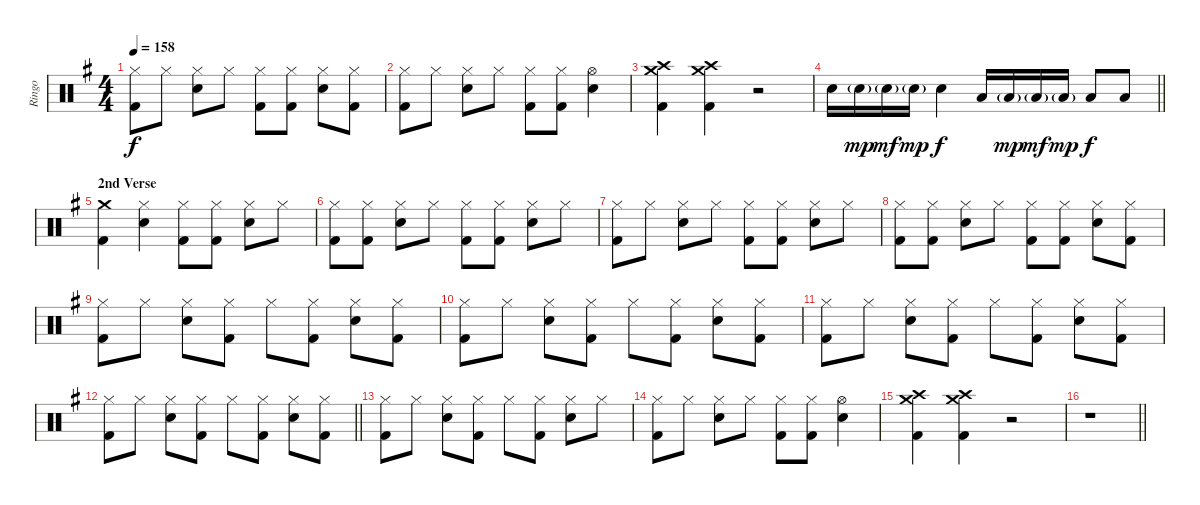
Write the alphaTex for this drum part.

\track ("Ringo" "Ringo") {instrument percussion}
\staff {score}
\articulation defaults
\ts (4 4)
\tempo 158
\clef neutral
\ks g
("Hi-Hat (closed)" "Kick (hit) 2").8{dy f} "Hi-Hat (closed)".8 ("Hi-Hat (closed)" "Electric Snare (hit)").8 "Hi-Hat (closed)".8 ("Hi-Hat (closed)" "Kick (hit) 2").8 ("Hi-Hat (closed)" "Kick (hit) 2").8 ("Hi-Hat (closed)" "Electric Snare (hit)").8 ("Hi-Hat (closed)" "Kick (hit) 2").8 |
("Hi-Hat (closed)" "Kick (hit) 2").8 "Hi-Hat (closed)".8 ("Hi-Hat (closed)" "Electric Snare (hit)").8 "Hi-Hat (closed)".8 ("Hi-Hat (closed)" "Kick (hit) 2").8 ("Hi-Hat (closed)" "Kick (hit) 2").8 ("Hi-Hat (open)" "Electric Snare (hit)").4 |
("Crash medium (hit)" "Crash high (hit)" "Kick (hit) 2").4 ("Crash medium (hit)" "Crash high (hit)" "Kick (hit) 2").4 r.2 |
\barLineRight lightlight "Electric Snare (hit)".16 "Electric Snare (hit)"{g}.16{dy mp} "Electric Snare (hit)"{g}.16{dy mf} "Electric Snare (hit)"{g}.16{dy mp} "Electric Snare (hit)".4{dy f} "Low Tom (hit)".16 "Low Tom (hit)"{g}.16{dy mp} "Low Tom (hit)"{g}.16{dy mf} "Low Tom (hit)"{g}.16{dy mp} "Low Tom (hit)".8{dy f} "Low Tom (hit)".8
|
\section ("" "2nd Verse")
("Crash medium (hit)" "Kick (hit) 2").4 ("Hi-Hat (closed)" "Electric Snare (hit)").4 ("Hi-Hat (closed)" "Kick (hit) 2").8 ("Hi-Hat (closed)" "Kick (hit) 2").8 ("Hi-Hat (closed)" "Electric Snare (hit)").8 "Hi-Hat (closed)".8 |
("Hi-Hat (closed)" "Kick (hit) 2").8 ("Hi-Hat (closed)" "Kick (hit) 2").8 ("Hi-Hat (closed)" "Electric Snare (hit)").8 "Hi-Hat (closed)".8 ("Hi-Hat (closed)" "Kick (hit) 2").8 ("Hi-Hat (closed)" "Kick (hit) 2").8 ("Hi-Hat (closed)" "Electric Snare (hit)").8 "Hi-Hat (closed)".8 |
("Hi-Hat (closed)" "Kick (hit) 2").8 "Hi-Hat (closed)".8 ("Hi-Hat (closed)" "Electric Snare (hit)").8 "Hi-Hat (closed)".8 ("Hi-Hat (closed)" "Kick (hit) 2").8 ("Hi-Hat (closed)" "Kick (hit) 2").8 ("Hi-Hat (closed)" "Electric Snare (hit)").8 "Hi-Hat (closed)".8 |
("Hi-Hat (closed)" "Kick (hit) 2").8 ("Hi-Hat (closed)" "Kick (hit) 2").8 ("Hi-Hat (closed)" "Electric Snare (hit)").8 "Hi-Hat (closed)".8 ("Hi-Hat (closed)" "Kick (hit) 2").8 ("Hi-Hat (closed)" "Kick (hit) 2").8 ("Hi-Hat (closed)" "Electric Snare (hit)").8 ("Hi-Hat (closed)" "Kick (hit) 2").8 |
("Hi-Hat (closed)" "Kick (hit) 2").8 "Hi-Hat (closed)".8 ("Hi-Hat (closed)" "Electric Snare (hit)").8 ("Hi-Hat (closed)" "Kick (hit) 2").8 "Hi-Hat (closed)".8 ("Hi-Hat (closed)" "Kick (hit) 2").8 ("Hi-Hat (closed)" "Electric Snare (hit)").8 ("Hi-Hat (closed)" "Kick (hit) 2").8 |
("Hi-Hat (closed)" "Kick (hit) 2").8 "Hi-Hat (closed)".8 ("Hi-Hat (closed)" "Electric Snare (hit)").8 ("Hi-Hat (closed)" "Kick (hit) 2").8 "Hi-Hat (closed)".8 ("Hi-Hat (closed)" "Kick (hit) 2").8 ("Hi-Hat (closed)" "Electric Snare (hit)").8 ("Hi-Hat (closed)" "Kick (hit) 2").8 |
("Hi-Hat (closed)" "Kick (hit) 2").8 "Hi-Hat (closed)".8 ("Hi-Hat (closed)" "Electric Snare (hit)").8 ("Hi-Hat (closed)" "Kick (hit) 2").8 "Hi-Hat (closed)".8 ("Hi-Hat (closed)" "Kick (hit) 2").8 ("Hi-Hat (closed)" "Electric Snare (hit)").8 ("Hi-Hat (closed)" "Kick (hit) 2").8 |
\barLineRight lightlight
("Hi-Hat (closed)" "Kick (hit) 2").8 "Hi-Hat (closed)".8 ("Hi-Hat (closed)" "Electric Snare (hit)").8 ("Hi-Hat (closed)" "Kick (hit) 2").8 "Hi-Hat (closed)".8 ("Hi-Hat (closed)" "Kick (hit) 2").8 ("Hi-Hat (closed)" "Electric Snare (hit)").8 ("Hi-Hat (closed)" "Kick (hit) 2").8 |
("Hi-Hat (closed)" "Kick (hit) 2").8 "Hi-Hat (closed)".8 ("Hi-Hat (closed)" "Electric Snare (hit)").8 ("Hi-Hat (closed)" "Kick (hit) 2").8 "Hi-Hat (closed)".8 ("Hi-Hat (closed)" "Kick (hit) 2").8 ("Hi-Hat (closed)" "Electric Snare (hit)").8 "Hi-Hat (closed)".8 |
("Hi-Hat (closed)" "Kick (hit) 2").8 "Hi-Hat (closed)".8 ("Hi-Hat (closed)" "Electric Snare (hit)").8 "Hi-Hat (closed)".8 ("Hi-Hat (closed)" "Kick (hit) 2").8 ("Hi-Hat (closed)" "Kick (hit) 2").8 ("Hi-Hat (open)" "Electric Snare (hit)").4 |
("Crash medium (hit)" "Crash high (hit)" "Kick (hit) 2").4 ("Crash medium (hit)" "Crash high (hit)" "Kick (hit) 2").4 r.2 |
\barLineRight lightlight
r.1
